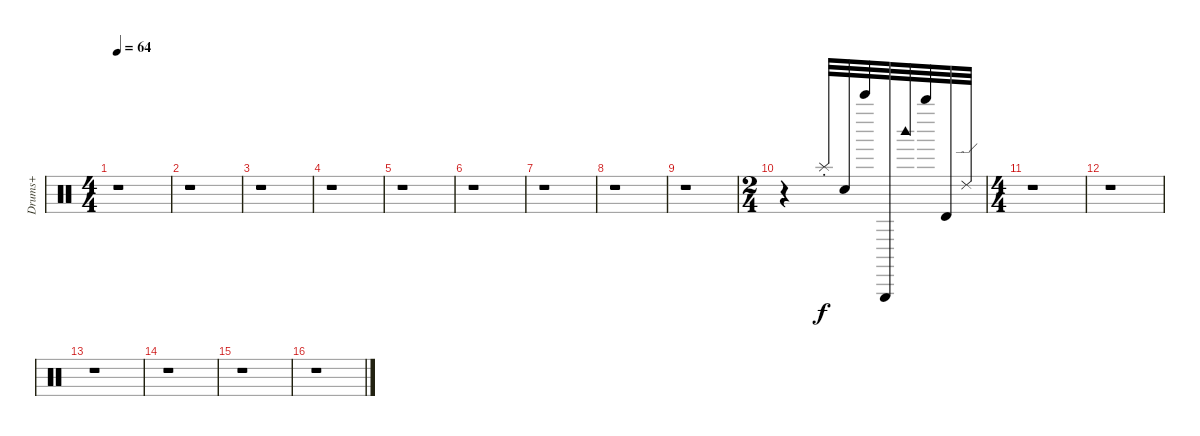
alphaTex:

\track ("Drums+" "Drums+") {instrument percussion}
\staff {score}
\articulation defaults
\ts (4 4)
\tempo 64
\clef neutral
\ks c
r.1{dy ff} |
r.1 |
r.1 |
r.1 |
r.1 |
r.1 |
r.1 |
r.1 |
r.1 |
\ts (2 4)
r.4 "Splash (choke)".32{dy f} "Snare (hit)".32 "Bell Tree (hit)".32 "Triangle (hit)".32 "Woodblock high (hit)".32 "Whistle high (hit)".32 "Timbale high (hit)".32 "Ride (edge) 2".32 |
\ts (4 4)
r.1 |
r.1 |
r.1 |
r.1 |
r.1 |
r.1
